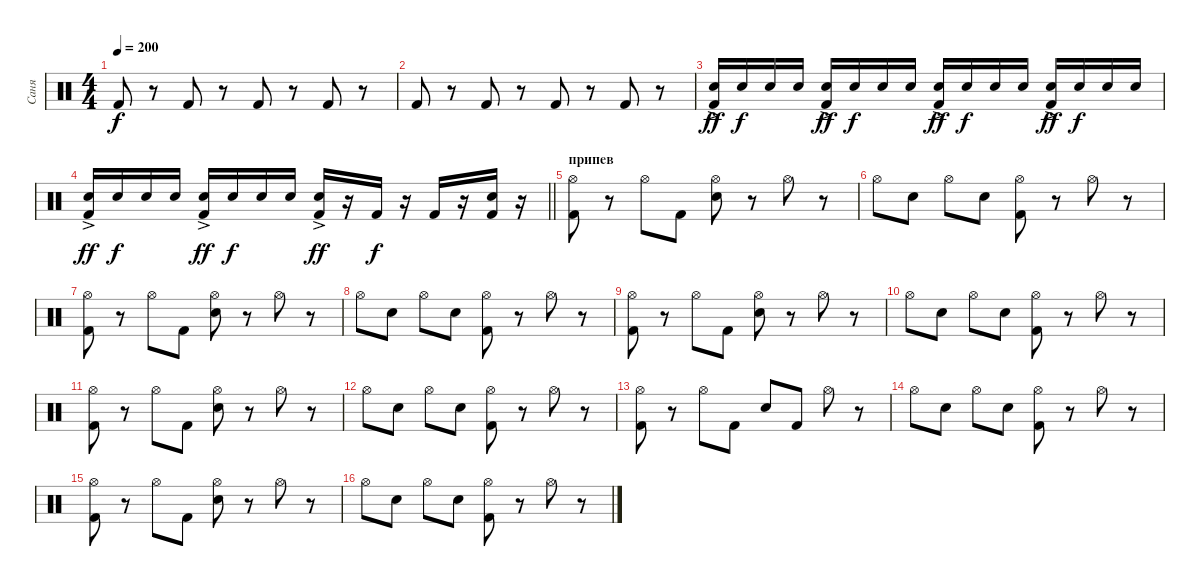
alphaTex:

\track ("Саня" "Саня") {instrument percussion}
\staff {score}
\articulation defaults
\ts (4 4)
\tempo 200
\clef neutral
\ks c "Kick (hit) 2".8{dy f}
r.8 "Kick (hit) 2".8 r.8 "Kick (hit) 2".8 r.8 "Kick (hit) 2".8 r.8 |
"Kick (hit) 2".8 r.8 "Kick (hit) 2".8 r.8 "Kick (hit) 2".8 r.8 "Kick (hit) 2".8 r.8 |
("Electric Snare (hit)"{ac} "Kick (hit) 2").16{dy ff volume 6} "Electric Snare (hit)".16{dy f volume 13} "Electric Snare (hit)".16 "Electric Snare (hit)".16 ("Electric Snare (hit)"{ac} "Kick (hit) 2").16{dy ff} "Electric Snare (hit)".16{dy f} "Electric Snare (hit)".16 "Electric Snare (hit)".16 ("Electric Snare (hit)"{ac} "Kick (hit) 2").16{dy ff} "Electric Snare (hit)".16{dy f} "Electric Snare (hit)".16 "Electric Snare (hit)".16 ("Electric Snare (hit)"{ac} "Kick (hit) 2").16{dy ff} "Electric Snare (hit)".16{dy f} "Electric Snare (hit)".16 "Electric Snare (hit)".16 |
\barLineRight lightlight
("Electric Snare (hit)"{ac} "Kick (hit) 2").16{dy ff} "Electric Snare (hit)".16{dy f} "Electric Snare (hit)".16 "Electric Snare (hit)".16 ("Electric Snare (hit)"{ac} "Kick (hit) 2").16{dy ff} "Electric Snare (hit)".16{dy f} "Electric Snare (hit)".16 "Electric Snare (hit)".16 ("Electric Snare (hit)"{ac} "Kick (hit) 2").16{dy ff} r.16 "Kick (hit) 2".16{dy f} r.16 "Kick (hit) 2".16 r.16 ("Electric Snare (hit)" "Kick (hit) 2").16 r.16 |
\section ("" "припев")
("Hi-Hat (open)" "Kick (hit) 2").8 r.8 "Hi-Hat (open)".8 "Kick (hit) 2".8 ("Hi-Hat (open)" "Electric Snare (hit)").8 r.8 "Hi-Hat (open)".8 r.8 |
"Hi-Hat (open)".8 "Electric Snare (hit)".8 "Hi-Hat (open)".8 "Electric Snare (hit)".8 ("Hi-Hat (open)" "Kick (hit) 2").8 r.8 "Hi-Hat (open)".8 r.8 |
("Hi-Hat (open)" "Kick (hit) 2").8 r.8 "Hi-Hat (open)".8 "Kick (hit) 2".8 ("Hi-Hat (open)" "Electric Snare (hit)").8 r.8 "Hi-Hat (open)".8 r.8 |
"Hi-Hat (open)".8 "Electric Snare (hit)".8 "Hi-Hat (open)".8 "Electric Snare (hit)".8 ("Hi-Hat (open)" "Kick (hit) 2").8 r.8 "Hi-Hat (open)".8 r.8 |
("Hi-Hat (open)" "Kick (hit) 2").8 r.8 "Hi-Hat (open)".8 "Kick (hit) 2".8 ("Hi-Hat (open)" "Electric Snare (hit)").8 r.8 "Hi-Hat (open)".8 r.8 |
"Hi-Hat (open)".8 "Electric Snare (hit)".8 "Hi-Hat (open)".8 "Electric Snare (hit)".8 ("Hi-Hat (open)" "Kick (hit) 2").8 r.8 "Hi-Hat (open)".8 r.8 |
("Hi-Hat (open)" "Kick (hit) 2").8 r.8 "Hi-Hat (open)".8 "Kick (hit) 2".8 ("Hi-Hat (open)" "Electric Snare (hit)").8 r.8 "Hi-Hat (open)".8 r.8 |
"Hi-Hat (open)".8 "Electric Snare (hit)".8 "Hi-Hat (open)".8 "Electric Snare (hit)".8 ("Hi-Hat (open)" "Kick (hit) 2").8 r.8 "Hi-Hat (open)".8 r.8 |
("Hi-Hat (open)" "Kick (hit) 2").8 r.8 "Hi-Hat (open)".8 "Kick (hit) 2".8 "Electric Snare (hit)".8 "Kick (hit) 2".8 "Hi-Hat (open)".8 r.8 |
"Hi-Hat (open)".8 "Electric Snare (hit)".8 "Hi-Hat (open)".8 "Electric Snare (hit)".8 ("Hi-Hat (open)" "Kick (hit) 2").8 r.8 "Hi-Hat (open)".8 r.8 |
("Hi-Hat (open)" "Kick (hit) 2").8 r.8 "Hi-Hat (open)".8 "Kick (hit) 2".8 ("Hi-Hat (open)" "Electric Snare (hit)").8 r.8 "Hi-Hat (open)".8 r.8 |
"Hi-Hat (open)".8 "Electric Snare (hit)".8 "Hi-Hat (open)".8 "Electric Snare (hit)".8 ("Hi-Hat (open)" "Kick (hit) 2").8 r.8 "Hi-Hat (open)".8 r.8
